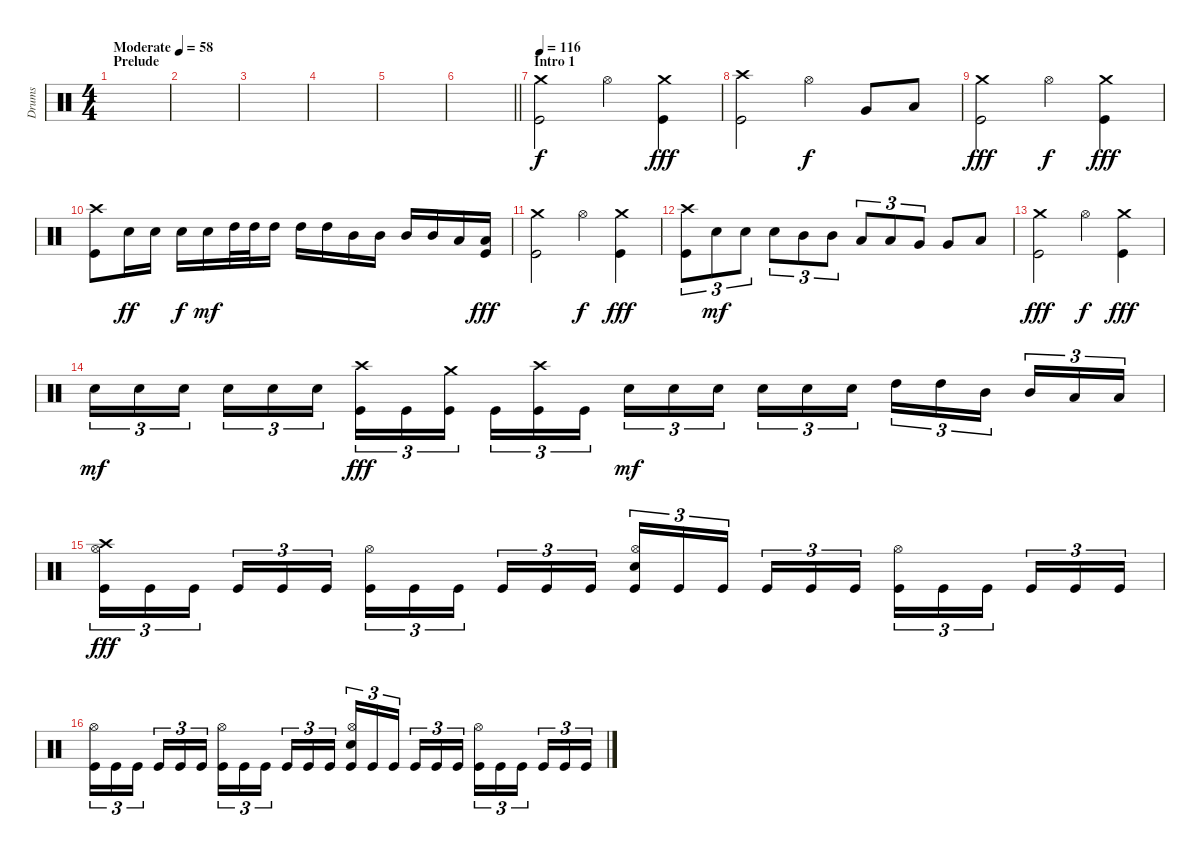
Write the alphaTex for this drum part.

\track ("Drums" "Drums") {instrument percussion}
\staff {score}
\articulation defaults
\ts (4 4)
\section ("" "Prelude")
\tempo (58 "Moderate")
\clef neutral
\ks c
|
|
|
|
|
\barLineRight lightlight
|
\section ("" "Intro 1")
\tempo 116
("Crash medium (hit)" "Kick (hit)").2 "Hi-Hat (open)".4{dy f} ("Crash medium (hit)" "Kick (hit)").4{dy fff} |
("Crash high (hit)" "Kick (hit)").2 "Hi-Hat (open)".4{dy f} "Very Low Tom (hit)".8 "Low Floor Tom (hit)".8 |
("Crash medium (hit)" "Kick (hit)").2{dy fff} "Hi-Hat (open)".4{dy f} ("Crash medium (hit)" "Kick (hit)").4{dy fff} |
("Crash high (hit)" "Kick (hit)").8 "Electric Snare (hit)".16{dy ff} "Electric Snare (hit)".16 "Electric Snare (hit)".16{dy f} "Electric Snare (hit)".16{dy mf} "High Tom (hit)".32 "High Tom (hit)".32 "High Tom (hit)".16 "High Tom (hit)".16 "High Tom (hit)".16 "Mid Tom (hit)".16 "Mid Tom (hit)".16 "Mid Tom (hit)".16 "Mid Tom (hit)".16 "Low Tom (hit)".16 ("Low Tom (hit)" "Kick (hit)").16{dy fff} |
("Crash medium (hit)" "Kick (hit)").2 "Hi-Hat (open)".4{dy f} ("Crash medium (hit)" "Kick (hit)").4{dy fff} |
("Crash high (hit)" "Kick (hit)").8{tu (3 2)} "Electric Snare (hit)".8{tu (3 2) dy mf} "Electric Snare (hit)".8{tu (3 2)} "Electric Snare (hit)".8{tu (3 2)} "Mid Tom (hit)".8{tu (3 2)} "Mid Tom (hit)".8{tu (3 2)} "Low Tom (hit)".8{tu (3 2)} "Low Tom (hit)".8{tu (3 2)} "Very Low Tom (hit)".8{tu (3 2)} "Very Low Tom (hit)".8 "Low Floor Tom (hit)".8 |
("Crash medium (hit)" "Kick (hit)").2{dy fff} "Hi-Hat (open)".4{dy f} ("Crash medium (hit)" "Kick (hit)").4{dy fff} |
"Electric Snare (hit)".16{tu (3 2) dy mf} "Electric Snare (hit)".16{tu (3 2)} "Electric Snare (hit)".16{tu (3 2) beam splitsecondary} "Electric Snare (hit)".16{tu (3 2)} "Electric Snare (hit)".16{tu (3 2)} "Electric Snare (hit)".16{tu (3 2)} ("Crash high (hit)" "Kick (hit)").16{tu (3 2) dy fff} "Kick (hit)".16{tu (3 2)} ("Crash medium (hit)" "Kick (hit)").16{tu (3 2) beam splitsecondary} "Kick (hit)".16{tu (3 2)} ("Crash high (hit)" "Kick (hit)").16{tu (3 2)} "Kick (hit)".16{tu (3 2)} "Electric Snare (hit)".16{tu (3 2) dy mf} "Electric Snare (hit)".16{tu (3 2)} "Electric Snare (hit)".16{tu (3 2) beam splitsecondary} "Electric Snare (hit)".16{tu (3 2)} "Electric Snare (hit)".16{tu (3 2)} "Electric Snare (hit)".16{tu (3 2)} "High Tom (hit)".16{tu (3 2)} "High Tom (hit)".16{tu (3 2)} "Mid Tom (hit)".16{tu (3 2) beam splitsecondary} "Mid Tom (hit)".16{tu (3 2)} "Low Tom (hit)".16{tu (3 2)} "Low Tom (hit)".16{tu (3 2)} |
("Crash high (hit)" "Hi-Hat (open)" "Kick (hit)").16{tu (3 2) dy fff} "Kick (hit)".16{tu (3 2)} "Kick (hit)".16{tu (3 2) beam splitsecondary} "Kick (hit)".16{tu (3 2)} "Kick (hit)".16{tu (3 2)} "Kick (hit)".16{tu (3 2)} ("Hi-Hat (open)" "Kick (hit)").16{tu (3 2)} "Kick (hit)".16{tu (3 2)} "Kick (hit)".16{tu (3 2) beam splitsecondary} "Kick (hit)".16{tu (3 2)} "Kick (hit)".16{tu (3 2)} "Kick (hit)".16{tu (3 2)} ("Hi-Hat (open)" "Electric Snare (hit)" "Kick (hit)").16{tu (3 2)} "Kick (hit)".16{tu (3 2)} "Kick (hit)".16{tu (3 2) beam splitsecondary} "Kick (hit)".16{tu (3 2)} "Kick (hit)".16{tu (3 2)} "Kick (hit)".16{tu (3 2)} ("Hi-Hat (open)" "Kick (hit)").16{tu (3 2)} "Kick (hit)".16{tu (3 2)} "Kick (hit)".16{tu (3 2) beam splitsecondary} "Kick (hit)".16{tu (3 2)} "Kick (hit)".16{tu (3 2)} "Kick (hit)".16{tu (3 2)} |
("Hi-Hat (open)" "Kick (hit)").16{tu (3 2)} "Kick (hit)".16{tu (3 2)} "Kick (hit)".16{tu (3 2) beam splitsecondary} "Kick (hit)".16{tu (3 2)} "Kick (hit)".16{tu (3 2)} "Kick (hit)".16{tu (3 2)} ("Hi-Hat (open)" "Kick (hit)").16{tu (3 2)} "Kick (hit)".16{tu (3 2)} "Kick (hit)".16{tu (3 2) beam splitsecondary} "Kick (hit)".16{tu (3 2)} "Kick (hit)".16{tu (3 2)} "Kick (hit)".16{tu (3 2)} ("Hi-Hat (open)" "Electric Snare (hit)" "Kick (hit)").16{tu (3 2)} "Kick (hit)".16{tu (3 2)} "Kick (hit)".16{tu (3 2) beam splitsecondary} "Kick (hit)".16{tu (3 2)} "Kick (hit)".16{tu (3 2)} "Kick (hit)".16{tu (3 2)} ("Hi-Hat (open)" "Kick (hit)").16{tu (3 2)} "Kick (hit)".16{tu (3 2)} "Kick (hit)".16{tu (3 2) beam splitsecondary} "Kick (hit)".16{tu (3 2)} "Kick (hit)".16{tu (3 2)} "Kick (hit)".16{tu (3 2)}
